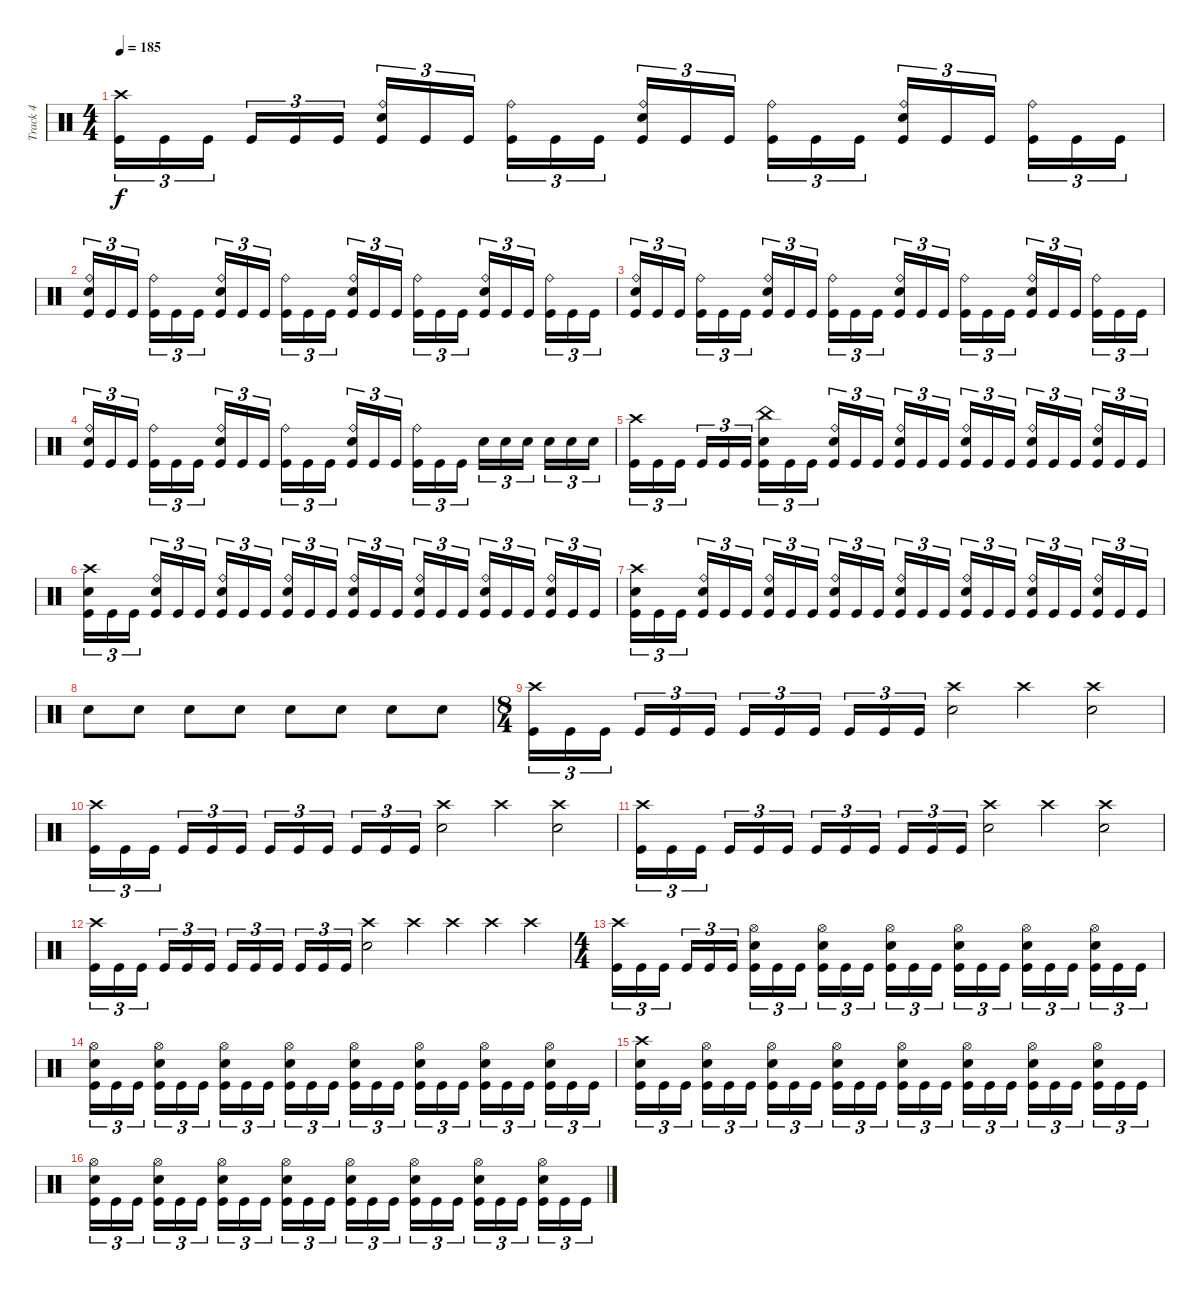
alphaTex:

\track ("Track 4" "Track 4") {instrument percussion}
\staff {score}
\articulation defaults
\ts (4 4)
\tempo 185
\clef neutral
\ks c
("Crash high (hit)" "Kick (hit)").16{tu (3 2) dy f} "Kick (hit)".16{tu (3 2)} "Kick (hit)".16{tu (3 2)} "Kick (hit)".16{tu (3 2)} "Kick (hit)".16{tu (3 2)} "Kick (hit)".16{tu (3 2)} ("Ride (bell)" "Electric Snare (hit)" "Kick (hit)").16{tu (3 2)} "Kick (hit)".16{tu (3 2)} "Kick (hit)".16{tu (3 2)} ("Ride (bell)" "Kick (hit)").16{tu (3 2)} "Kick (hit)".16{tu (3 2)} "Kick (hit)".16{tu (3 2)} ("Ride (bell)" "Electric Snare (hit)" "Kick (hit)").16{tu (3 2)} "Kick (hit)".16{tu (3 2)} "Kick (hit)".16{tu (3 2)} ("Ride (bell)" "Kick (hit)").16{tu (3 2)} "Kick (hit)".16{tu (3 2)} "Kick (hit)".16{tu (3 2)} ("Ride (bell)" "Electric Snare (hit)" "Kick (hit)").16{tu (3 2)} "Kick (hit)".16{tu (3 2)} "Kick (hit)".16{tu (3 2)} ("Ride (bell)" "Kick (hit)").16{tu (3 2)} "Kick (hit)".16{tu (3 2)} "Kick (hit)".16{tu (3 2)} |
("Ride (bell)" "Electric Snare (hit)" "Kick (hit)").16{tu (3 2)} "Kick (hit)".16{tu (3 2)} "Kick (hit)".16{tu (3 2)} ("Ride (bell)" "Kick (hit)").16{tu (3 2)} "Kick (hit)".16{tu (3 2)} "Kick (hit)".16{tu (3 2)} ("Ride (bell)" "Electric Snare (hit)" "Kick (hit)").16{tu (3 2)} "Kick (hit)".16{tu (3 2)} "Kick (hit)".16{tu (3 2)} ("Ride (bell)" "Kick (hit)").16{tu (3 2)} "Kick (hit)".16{tu (3 2)} "Kick (hit)".16{tu (3 2)} ("Ride (bell)" "Electric Snare (hit)" "Kick (hit)").16{tu (3 2)} "Kick (hit)".16{tu (3 2)} "Kick (hit)".16{tu (3 2)} ("Ride (bell)" "Kick (hit)").16{tu (3 2)} "Kick (hit)".16{tu (3 2)} "Kick (hit)".16{tu (3 2)} ("Ride (bell)" "Electric Snare (hit)" "Kick (hit)").16{tu (3 2)} "Kick (hit)".16{tu (3 2)} "Kick (hit)".16{tu (3 2)} ("Ride (bell)" "Kick (hit)").16{tu (3 2)} "Kick (hit)".16{tu (3 2)} "Kick (hit)".16{tu (3 2)} |
("Ride (bell)" "Electric Snare (hit)" "Kick (hit)").16{tu (3 2)} "Kick (hit)".16{tu (3 2)} "Kick (hit)".16{tu (3 2)} ("Ride (bell)" "Kick (hit)").16{tu (3 2)} "Kick (hit)".16{tu (3 2)} "Kick (hit)".16{tu (3 2)} ("Ride (bell)" "Electric Snare (hit)" "Kick (hit)").16{tu (3 2)} "Kick (hit)".16{tu (3 2)} "Kick (hit)".16{tu (3 2)} ("Ride (bell)" "Kick (hit)").16{tu (3 2)} "Kick (hit)".16{tu (3 2)} "Kick (hit)".16{tu (3 2)} ("Ride (bell)" "Electric Snare (hit)" "Kick (hit)").16{tu (3 2)} "Kick (hit)".16{tu (3 2)} "Kick (hit)".16{tu (3 2)} ("Ride (bell)" "Kick (hit)").16{tu (3 2)} "Kick (hit)".16{tu (3 2)} "Kick (hit)".16{tu (3 2)} ("Ride (bell)" "Electric Snare (hit)" "Kick (hit)").16{tu (3 2)} "Kick (hit)".16{tu (3 2)} "Kick (hit)".16{tu (3 2)} ("Ride (bell)" "Kick (hit)").16{tu (3 2)} "Kick (hit)".16{tu (3 2)} "Kick (hit)".16{tu (3 2)} |
("Ride (bell)" "Electric Snare (hit)" "Kick (hit)").16{tu (3 2)} "Kick (hit)".16{tu (3 2)} "Kick (hit)".16{tu (3 2)} ("Ride (bell)" "Kick (hit)").16{tu (3 2)} "Kick (hit)".16{tu (3 2)} "Kick (hit)".16{tu (3 2)} ("Ride (bell)" "Electric Snare (hit)" "Kick (hit)").16{tu (3 2)} "Kick (hit)".16{tu (3 2)} "Kick (hit)".16{tu (3 2)} ("Ride (bell)" "Kick (hit)").16{tu (3 2)} "Kick (hit)".16{tu (3 2)} "Kick (hit)".16{tu (3 2)} ("Ride (bell)" "Electric Snare (hit)" "Kick (hit)").16{tu (3 2)} "Kick (hit)".16{tu (3 2)} "Kick (hit)".16{tu (3 2)} ("Ride (bell)" "Kick (hit)").16{tu (3 2)} "Kick (hit)".16{tu (3 2)} "Kick (hit)".16{tu (3 2)} "Electric Snare (hit)".16{tu (3 2)} "Electric Snare (hit)".16{tu (3 2)} "Electric Snare (hit)".16{tu (3 2)} "Electric Snare (hit)".16{tu (3 2)} "Electric Snare (hit)".16{tu (3 2)} "Electric Snare (hit)".16{tu (3 2)} |
("Crash high (hit)" "Kick (hit)").16{tu (3 2)} "Kick (hit)".16{tu (3 2)} "Kick (hit)".16{tu (3 2)} "Kick (hit)".16{tu (3 2)} "Kick (hit)".16{tu (3 2)} "Kick (hit)".16{tu (3 2)} ("China (hit)" "Electric Snare (hit)" "Kick (hit)").16{tu (3 2)} "Kick (hit)".16{tu (3 2)} "Kick (hit)".16{tu (3 2)} ("Ride (bell)" "Electric Snare (hit)" "Kick (hit)").16{tu (3 2)} "Kick (hit)".16{tu (3 2)} "Kick (hit)".16{tu (3 2)} ("Ride (bell)" "Electric Snare (hit)" "Kick (hit)").16{tu (3 2)} "Kick (hit)".16{tu (3 2)} "Kick (hit)".16{tu (3 2)} ("Ride (bell)" "Electric Snare (hit)" "Kick (hit)").16{tu (3 2)} "Kick (hit)".16{tu (3 2)} "Kick (hit)".16{tu (3 2)} ("Ride (bell)" "Electric Snare (hit)" "Kick (hit)").16{tu (3 2)} "Kick (hit)".16{tu (3 2)} "Kick (hit)".16{tu (3 2)} ("Ride (bell)" "Electric Snare (hit)" "Kick (hit)").16{tu (3 2)} "Kick (hit)".16{tu (3 2)} "Kick (hit)".16{tu (3 2)} |
("Crash high (hit)" "Electric Snare (hit)" "Kick (hit)").16{tu (3 2)} "Kick (hit)".16{tu (3 2)} "Kick (hit)".16{tu (3 2)} ("Ride (bell)" "Electric Snare (hit)" "Kick (hit)").16{tu (3 2)} "Kick (hit)".16{tu (3 2)} "Kick (hit)".16{tu (3 2)} ("Ride (bell)" "Electric Snare (hit)" "Kick (hit)").16{tu (3 2)} "Kick (hit)".16{tu (3 2)} "Kick (hit)".16{tu (3 2)} ("Ride (bell)" "Electric Snare (hit)" "Kick (hit)").16{tu (3 2)} "Kick (hit)".16{tu (3 2)} "Kick (hit)".16{tu (3 2)} ("Ride (bell)" "Electric Snare (hit)" "Kick (hit)").16{tu (3 2)} "Kick (hit)".16{tu (3 2)} "Kick (hit)".16{tu (3 2)} ("Ride (bell)" "Electric Snare (hit)" "Kick (hit)").16{tu (3 2)} "Kick (hit)".16{tu (3 2)} "Kick (hit)".16{tu (3 2)} ("Ride (bell)" "Electric Snare (hit)" "Kick (hit)").16{tu (3 2)} "Kick (hit)".16{tu (3 2)} "Kick (hit)".16{tu (3 2)} ("Ride (bell)" "Electric Snare (hit)" "Kick (hit)").16{tu (3 2)} "Kick (hit)".16{tu (3 2)} "Kick (hit)".16{tu (3 2)} |
("Crash high (hit)" "Electric Snare (hit)" "Kick (hit)").16{tu (3 2)} "Kick (hit)".16{tu (3 2)} "Kick (hit)".16{tu (3 2)} ("Ride (bell)" "Electric Snare (hit)" "Kick (hit)").16{tu (3 2)} "Kick (hit)".16{tu (3 2)} "Kick (hit)".16{tu (3 2)} ("Ride (bell)" "Electric Snare (hit)" "Kick (hit)").16{tu (3 2)} "Kick (hit)".16{tu (3 2)} "Kick (hit)".16{tu (3 2)} ("Ride (bell)" "Electric Snare (hit)" "Kick (hit)").16{tu (3 2)} "Kick (hit)".16{tu (3 2)} "Kick (hit)".16{tu (3 2)} ("Ride (bell)" "Electric Snare (hit)" "Kick (hit)").16{tu (3 2)} "Kick (hit)".16{tu (3 2)} "Kick (hit)".16{tu (3 2)} ("Ride (bell)" "Electric Snare (hit)" "Kick (hit)").16{tu (3 2)} "Kick (hit)".16{tu (3 2)} "Kick (hit)".16{tu (3 2)} ("Ride (bell)" "Electric Snare (hit)" "Kick (hit)").16{tu (3 2)} "Kick (hit)".16{tu (3 2)} "Kick (hit)".16{tu (3 2)} ("Ride (bell)" "Electric Snare (hit)" "Kick (hit)").16{tu (3 2)} "Kick (hit)".16{tu (3 2)} "Kick (hit)".16{tu (3 2)} |
"Electric Snare (hit)".8 "Electric Snare (hit)".8 "Electric Snare (hit)".8 "Electric Snare (hit)".8 "Electric Snare (hit)".8 "Electric Snare (hit)".8 "Electric Snare (hit)".8 "Electric Snare (hit)".8 |
\ts (8 4)
("Crash high (hit)" "Kick (hit)").16{tu (3 2)} "Kick (hit)".16{tu (3 2)} "Kick (hit)".16{tu (3 2)} "Kick (hit)".16{tu (3 2)} "Kick (hit)".16{tu (3 2)} "Kick (hit)".16{tu (3 2)} "Kick (hit)".16{tu (3 2)} "Kick (hit)".16{tu (3 2)} "Kick (hit)".16{tu (3 2)} "Kick (hit)".16{tu (3 2)} "Kick (hit)".16{tu (3 2)} "Kick (hit)".16{tu (3 2)} ("Crash high (hit)" "Electric Snare (hit)").2 "Crash high (hit)".2 ("Crash high (hit)" "Electric Snare (hit)").2 |
("Crash high (hit)" "Kick (hit)").16{tu (3 2)} "Kick (hit)".16{tu (3 2)} "Kick (hit)".16{tu (3 2)} "Kick (hit)".16{tu (3 2)} "Kick (hit)".16{tu (3 2)} "Kick (hit)".16{tu (3 2)} "Kick (hit)".16{tu (3 2)} "Kick (hit)".16{tu (3 2)} "Kick (hit)".16{tu (3 2)} "Kick (hit)".16{tu (3 2)} "Kick (hit)".16{tu (3 2)} "Kick (hit)".16{tu (3 2)} ("Crash high (hit)" "Electric Snare (hit)").2 "Crash high (hit)".2 ("Crash high (hit)" "Electric Snare (hit)").2 |
("Crash high (hit)" "Kick (hit)").16{tu (3 2)} "Kick (hit)".16{tu (3 2)} "Kick (hit)".16{tu (3 2)} "Kick (hit)".16{tu (3 2)} "Kick (hit)".16{tu (3 2)} "Kick (hit)".16{tu (3 2)} "Kick (hit)".16{tu (3 2)} "Kick (hit)".16{tu (3 2)} "Kick (hit)".16{tu (3 2)} "Kick (hit)".16{tu (3 2)} "Kick (hit)".16{tu (3 2)} "Kick (hit)".16{tu (3 2)} ("Crash high (hit)" "Electric Snare (hit)").2 "Crash high (hit)".2 ("Crash high (hit)" "Electric Snare (hit)").2 |
("Crash high (hit)" "Kick (hit)").16{tu (3 2)} "Kick (hit)".16{tu (3 2)} "Kick (hit)".16{tu (3 2)} "Kick (hit)".16{tu (3 2)} "Kick (hit)".16{tu (3 2)} "Kick (hit)".16{tu (3 2)} "Kick (hit)".16{tu (3 2)} "Kick (hit)".16{tu (3 2)} "Kick (hit)".16{tu (3 2)} "Kick (hit)".16{tu (3 2)} "Kick (hit)".16{tu (3 2)} "Kick (hit)".16{tu (3 2)} ("Crash high (hit)" "Electric Snare (hit)").2 "Crash high (hit)"{x}.4 "Crash high (hit)"{x}.4 "Crash high (hit)"{x}.4 "Crash high (hit)"{x}.4 |
\ts (4 4)
("Crash high (hit)" "Kick (hit)").16{tu (3 2)} "Kick (hit)".16{tu (3 2)} "Kick (hit)".16{tu (3 2)} "Kick (hit)".16{tu (3 2)} "Kick (hit)".16{tu (3 2)} "Kick (hit)".16{tu (3 2)} ("Hi-Hat (open)" "Electric Snare (hit)" "Kick (hit)").16{tu (3 2)} "Kick (hit)".16{tu (3 2)} "Kick (hit)".16{tu (3 2)} ("Hi-Hat (open)" "Electric Snare (hit)" "Kick (hit)").16{tu (3 2)} "Kick (hit)".16{tu (3 2)} "Kick (hit)".16{tu (3 2)} ("Hi-Hat (open)" "Electric Snare (hit)" "Kick (hit)").16{tu (3 2)} "Kick (hit)".16{tu (3 2)} "Kick (hit)".16{tu (3 2)} ("Hi-Hat (open)" "Electric Snare (hit)" "Kick (hit)").16{tu (3 2)} "Kick (hit)".16{tu (3 2)} "Kick (hit)".16{tu (3 2)} ("Hi-Hat (open)" "Electric Snare (hit)" "Kick (hit)").16{tu (3 2)} "Kick (hit)".16{tu (3 2)} "Kick (hit)".16{tu (3 2)} ("Hi-Hat (open)" "Electric Snare (hit)" "Kick (hit)").16{tu (3 2)} "Kick (hit)".16{tu (3 2)} "Kick (hit)".16{tu (3 2)} |
("Hi-Hat (open)" "Electric Snare (hit)" "Kick (hit)").16{tu (3 2)} "Kick (hit)".16{tu (3 2)} "Kick (hit)".16{tu (3 2)} ("Hi-Hat (open)" "Electric Snare (hit)" "Kick (hit)").16{tu (3 2)} "Kick (hit)".16{tu (3 2)} "Kick (hit)".16{tu (3 2)} ("Hi-Hat (open)" "Electric Snare (hit)" "Kick (hit)").16{tu (3 2)} "Kick (hit)".16{tu (3 2)} "Kick (hit)".16{tu (3 2)} ("Hi-Hat (open)" "Electric Snare (hit)" "Kick (hit)").16{tu (3 2)} "Kick (hit)".16{tu (3 2)} "Kick (hit)".16{tu (3 2)} ("Hi-Hat (open)" "Electric Snare (hit)" "Kick (hit)").16{tu (3 2)} "Kick (hit)".16{tu (3 2)} "Kick (hit)".16{tu (3 2)} ("Hi-Hat (open)" "Electric Snare (hit)" "Kick (hit)").16{tu (3 2)} "Kick (hit)".16{tu (3 2)} "Kick (hit)".16{tu (3 2)} ("Hi-Hat (open)" "Electric Snare (hit)" "Kick (hit)").16{tu (3 2)} "Kick (hit)".16{tu (3 2)} "Kick (hit)".16{tu (3 2)} ("Hi-Hat (open)" "Electric Snare (hit)" "Kick (hit)").16{tu (3 2)} "Kick (hit)".16{tu (3 2)} "Kick (hit)".16{tu (3 2)} |
("Crash high (hit)" "Electric Snare (hit)" "Kick (hit)").16{tu (3 2)} "Kick (hit)".16{tu (3 2)} "Kick (hit)".16{tu (3 2)} ("Hi-Hat (open)" "Electric Snare (hit)" "Kick (hit)").16{tu (3 2)} "Kick (hit)".16{tu (3 2)} "Kick (hit)".16{tu (3 2)} ("Hi-Hat (open)" "Electric Snare (hit)" "Kick (hit)").16{tu (3 2)} "Kick (hit)".16{tu (3 2)} "Kick (hit)".16{tu (3 2)} ("Hi-Hat (open)" "Electric Snare (hit)" "Kick (hit)").16{tu (3 2)} "Kick (hit)".16{tu (3 2)} "Kick (hit)".16{tu (3 2)} ("Hi-Hat (open)" "Electric Snare (hit)" "Kick (hit)").16{tu (3 2)} "Kick (hit)".16{tu (3 2)} "Kick (hit)".16{tu (3 2)} ("Hi-Hat (open)" "Electric Snare (hit)" "Kick (hit)").16{tu (3 2)} "Kick (hit)".16{tu (3 2)} "Kick (hit)".16{tu (3 2)} ("Hi-Hat (open)" "Electric Snare (hit)" "Kick (hit)").16{tu (3 2)} "Kick (hit)".16{tu (3 2)} "Kick (hit)".16{tu (3 2)} ("Hi-Hat (open)" "Electric Snare (hit)" "Kick (hit)").16{tu (3 2)} "Kick (hit)".16{tu (3 2)} "Kick (hit)".16{tu (3 2)} |
("Hi-Hat (open)" "Electric Snare (hit)" "Kick (hit)").16{tu (3 2)} "Kick (hit)".16{tu (3 2)} "Kick (hit)".16{tu (3 2)} ("Hi-Hat (open)" "Electric Snare (hit)" "Kick (hit)").16{tu (3 2)} "Kick (hit)".16{tu (3 2)} "Kick (hit)".16{tu (3 2)} ("Hi-Hat (open)" "Electric Snare (hit)" "Kick (hit)").16{tu (3 2)} "Kick (hit)".16{tu (3 2)} "Kick (hit)".16{tu (3 2)} ("Hi-Hat (open)" "Electric Snare (hit)" "Kick (hit)").16{tu (3 2)} "Kick (hit)".16{tu (3 2)} "Kick (hit)".16{tu (3 2)} ("Hi-Hat (open)" "Electric Snare (hit)" "Kick (hit)").16{tu (3 2)} "Kick (hit)".16{tu (3 2)} "Kick (hit)".16{tu (3 2)} ("Hi-Hat (open)" "Electric Snare (hit)" "Kick (hit)").16{tu (3 2)} "Kick (hit)".16{tu (3 2)} "Kick (hit)".16{tu (3 2)} ("Hi-Hat (open)" "Electric Snare (hit)" "Kick (hit)").16{tu (3 2)} "Kick (hit)".16{tu (3 2)} "Kick (hit)".16{tu (3 2)} ("Hi-Hat (open)" "Electric Snare (hit)" "Kick (hit)").16{tu (3 2)} "Kick (hit)".16{tu (3 2)} "Kick (hit)".16{tu (3 2)}
